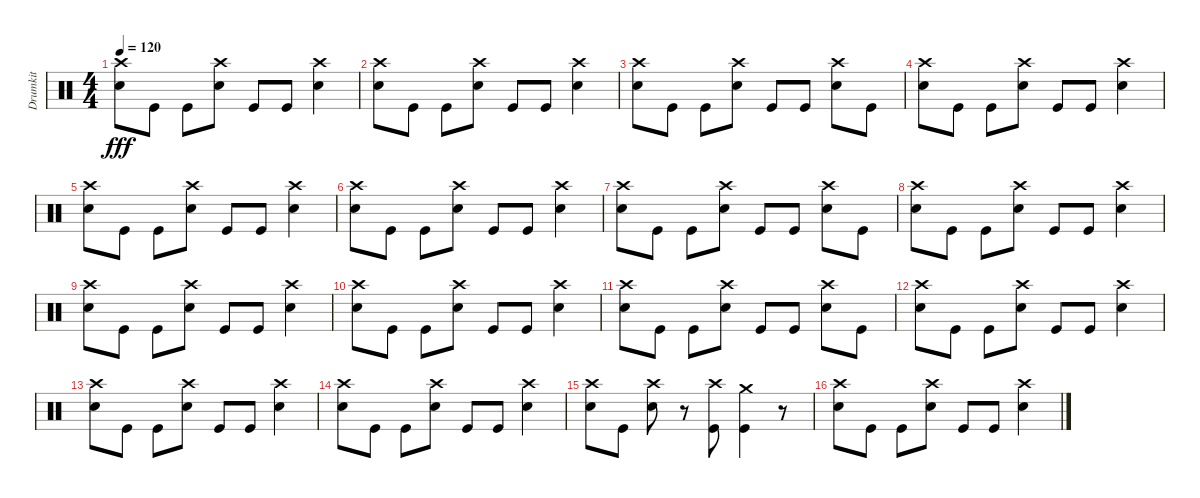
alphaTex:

\track ("Drumkit" "Drumkit") {instrument percussion}
\staff {score}
\articulation defaults
\ts (4 4)
\tempo 120
\clef neutral
\ks c
("Snare (hit) 2" "Crash high (hit)").8{dy fff} "Kick (hit)".8 "Kick (hit)".8 ("Snare (hit) 2" "Crash high (hit)").8 "Kick (hit)".8 "Kick (hit)".8 ("Snare (hit) 2" "Crash high (hit)").4 |
("Snare (hit) 2" "Crash high (hit)").8 "Kick (hit)".8 "Kick (hit)".8 ("Snare (hit) 2" "Crash high (hit)").8 "Kick (hit)".8 "Kick (hit)".8 ("Snare (hit) 2" "Crash high (hit)").4 |
("Snare (hit) 2" "Crash high (hit)").8 "Kick (hit)".8 "Kick (hit)".8 ("Snare (hit) 2" "Crash high (hit)").8 "Kick (hit)".8 "Kick (hit)".8 ("Snare (hit) 2" "Crash high (hit)").8 "Kick (hit)".8 |
("Snare (hit) 2" "Crash high (hit)").8 "Kick (hit)".8 "Kick (hit)".8 ("Snare (hit) 2" "Crash high (hit)").8 "Kick (hit)".8 "Kick (hit)".8 ("Snare (hit) 2" "Crash high (hit)").4 |
("Snare (hit) 2" "Crash high (hit)").8 "Kick (hit)".8 "Kick (hit)".8 ("Snare (hit) 2" "Crash high (hit)").8 "Kick (hit)".8 "Kick (hit)".8 ("Snare (hit) 2" "Crash high (hit)").4 |
("Snare (hit) 2" "Crash high (hit)").8 "Kick (hit)".8 "Kick (hit)".8 ("Snare (hit) 2" "Crash high (hit)").8 "Kick (hit)".8 "Kick (hit)".8 ("Snare (hit) 2" "Crash high (hit)").4 |
("Snare (hit) 2" "Crash high (hit)").8 "Kick (hit)".8 "Kick (hit)".8 ("Snare (hit) 2" "Crash high (hit)").8 "Kick (hit)".8 "Kick (hit)".8 ("Snare (hit) 2" "Crash high (hit)").8 "Kick (hit)".8 |
("Snare (hit) 2" "Crash high (hit)").8 "Kick (hit)".8 "Kick (hit)".8 ("Snare (hit) 2" "Crash high (hit)").8 "Kick (hit)".8 "Kick (hit)".8 ("Snare (hit) 2" "Crash high (hit)").4 |
("Snare (hit) 2" "Crash high (hit)").8 "Kick (hit)".8 "Kick (hit)".8 ("Snare (hit) 2" "Crash high (hit)").8 "Kick (hit)".8 "Kick (hit)".8 ("Snare (hit) 2" "Crash high (hit)").4 |
("Snare (hit) 2" "Crash high (hit)").8 "Kick (hit)".8 "Kick (hit)".8 ("Snare (hit) 2" "Crash high (hit)").8 "Kick (hit)".8 "Kick (hit)".8 ("Snare (hit) 2" "Crash high (hit)").4 |
("Snare (hit) 2" "Crash high (hit)").8 "Kick (hit)".8 "Kick (hit)".8 ("Snare (hit) 2" "Crash high (hit)").8 "Kick (hit)".8 "Kick (hit)".8 ("Snare (hit) 2" "Crash high (hit)").8 "Kick (hit)".8 |
("Snare (hit) 2" "Crash high (hit)").8 "Kick (hit)".8 "Kick (hit)".8 ("Snare (hit) 2" "Crash high (hit)").8 "Kick (hit)".8 "Kick (hit)".8 ("Snare (hit) 2" "Crash high (hit)").4 |
("Snare (hit) 2" "Crash high (hit)").8 "Kick (hit)".8 "Kick (hit)".8 ("Snare (hit) 2" "Crash high (hit)").8 "Kick (hit)".8 "Kick (hit)".8 ("Snare (hit) 2" "Crash high (hit)").4 |
("Snare (hit) 2" "Crash high (hit)").8 "Kick (hit)".8 "Kick (hit)".8 ("Snare (hit) 2" "Crash high (hit)").8 "Kick (hit)".8 "Kick (hit)".8 ("Snare (hit) 2" "Crash high (hit)").4 |
("Snare (hit) 2" "Crash high (hit)").8 "Kick (hit)".8 ("Crash high (hit)" "Snare (hit) 2").8 r.8 ("Kick (hit)" "Crash high (hit)").8 ("Kick (hit)" "Crash medium (hit)").4 r.8 |
("Snare (hit) 2" "Crash high (hit)").8 "Kick (hit)".8 "Kick (hit)".8 ("Snare (hit) 2" "Crash high (hit)").8 "Kick (hit)".8 "Kick (hit)".8 ("Snare (hit) 2" "Crash high (hit)").4
